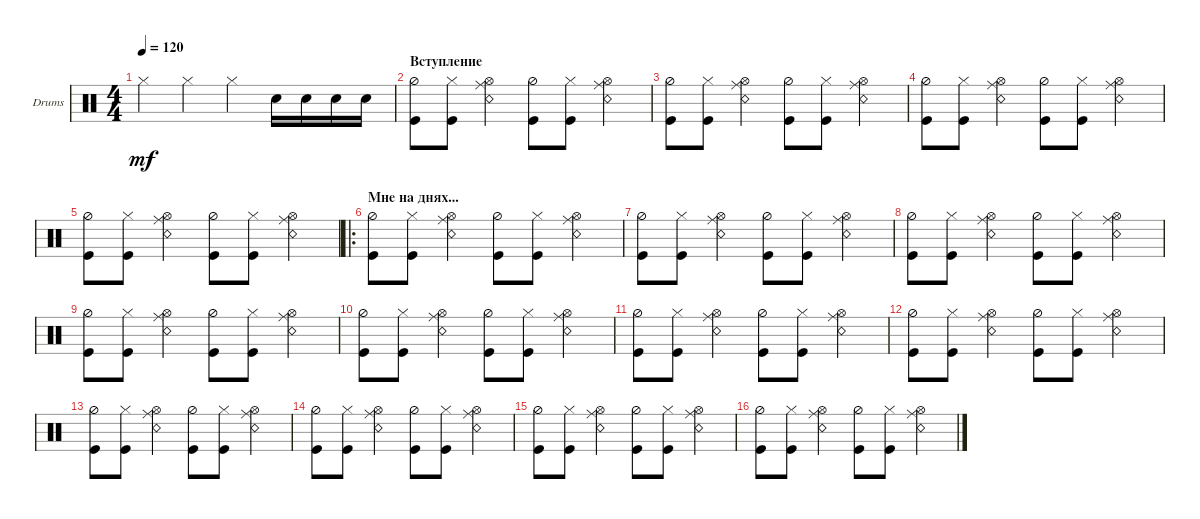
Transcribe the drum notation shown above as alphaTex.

\defaultSystemsLayout 4
\bracketExtendMode groupsimilarinstruments
\firstSystemTrackNameOrientation horizontal
\otherSystemsTrackNameOrientation horizontal
\track ("Drumkit" "Drums") {instrument percussion}
\staff {score}
\articulation defaults
\ts (4 4)
\tempo 120
\clef neutral
\ks c "Hi-Hat (closed)".4{dy mf} "Hi-Hat (closed)".4 "Hi-Hat (closed)".4 "Snare (hit) 2".16 "Snare (hit) 2".16 "Snare (hit) 2".16 "Snare (hit) 2".16
|
\section ("" "Вступление")
("Kick (hit)" "Hi-Hat (half)").8 ("Hi-Hat (closed)" "Kick (hit)").8 ("Hi-Hat (open)" "Ride (middle)" "Snare (rim shot)").4 ("Kick (hit)" "Hi-Hat (half)").8 ("Hi-Hat (closed)" "Kick (hit)").8 ("Hi-Hat (open)" "Ride (middle)" "Snare (rim shot)").4 |
("Kick (hit)" "Hi-Hat (half)").8 ("Hi-Hat (closed)" "Kick (hit)").8 ("Hi-Hat (open)" "Ride (middle)" "Snare (rim shot)").4 ("Kick (hit)" "Hi-Hat (half)").8 ("Hi-Hat (closed)" "Kick (hit)").8 ("Hi-Hat (open)" "Ride (middle)" "Snare (rim shot)").4 |
("Kick (hit)" "Hi-Hat (half)").8 ("Hi-Hat (closed)" "Kick (hit)").8 ("Hi-Hat (open)" "Ride (middle)" "Snare (rim shot)").4 ("Kick (hit)" "Hi-Hat (half)").8 ("Hi-Hat (closed)" "Kick (hit)").8 ("Hi-Hat (open)" "Ride (middle)" "Snare (rim shot)").4 |
("Kick (hit)" "Hi-Hat (half)").8 ("Hi-Hat (closed)" "Kick (hit)").8 ("Hi-Hat (open)" "Ride (middle)" "Snare (rim shot)").4 ("Kick (hit)" "Hi-Hat (half)").8 ("Hi-Hat (closed)" "Kick (hit)").8 ("Hi-Hat (open)" "Ride (middle)" "Snare (rim shot)").4 |
\ro
\section ("" "Мне на днях...")
("Kick (hit)" "Hi-Hat (half)").8 ("Hi-Hat (closed)" "Kick (hit)").8 ("Hi-Hat (open)" "Ride (middle)" "Snare (rim shot)").4 ("Kick (hit)" "Hi-Hat (half)").8 ("Hi-Hat (closed)" "Kick (hit)").8 ("Hi-Hat (open)" "Ride (middle)" "Snare (rim shot)").4 |
("Kick (hit)" "Hi-Hat (half)").8 ("Hi-Hat (closed)" "Kick (hit)").8 ("Hi-Hat (open)" "Ride (middle)" "Snare (rim shot)").4 ("Kick (hit)" "Hi-Hat (half)").8 ("Hi-Hat (closed)" "Kick (hit)").8 ("Hi-Hat (open)" "Ride (middle)" "Snare (rim shot)").4 |
("Kick (hit)" "Hi-Hat (half)").8 ("Hi-Hat (closed)" "Kick (hit)").8 ("Hi-Hat (open)" "Ride (middle)" "Snare (rim shot)").4 ("Kick (hit)" "Hi-Hat (half)").8 ("Hi-Hat (closed)" "Kick (hit)").8 ("Hi-Hat (open)" "Ride (middle)" "Snare (rim shot)").4 |
("Kick (hit)" "Hi-Hat (half)").8 ("Hi-Hat (closed)" "Kick (hit)").8 ("Hi-Hat (open)" "Ride (middle)" "Snare (rim shot)").4 ("Kick (hit)" "Hi-Hat (half)").8 ("Hi-Hat (closed)" "Kick (hit)").8 ("Hi-Hat (open)" "Ride (middle)" "Snare (rim shot)").4 |
("Kick (hit)" "Hi-Hat (half)").8 ("Hi-Hat (closed)" "Kick (hit)").8 ("Hi-Hat (open)" "Ride (middle)" "Snare (rim shot)").4 ("Kick (hit)" "Hi-Hat (half)").8 ("Hi-Hat (closed)" "Kick (hit)").8 ("Hi-Hat (open)" "Ride (middle)" "Snare (rim shot)").4 |
("Kick (hit)" "Hi-Hat (half)").8 ("Hi-Hat (closed)" "Kick (hit)").8 ("Hi-Hat (open)" "Ride (middle)" "Snare (rim shot)").4 ("Kick (hit)" "Hi-Hat (half)").8 ("Hi-Hat (closed)" "Kick (hit)").8 ("Hi-Hat (open)" "Ride (middle)" "Snare (rim shot)").4 |
("Kick (hit)" "Hi-Hat (half)").8 ("Hi-Hat (closed)" "Kick (hit)").8 ("Hi-Hat (open)" "Ride (middle)" "Snare (rim shot)").4 ("Kick (hit)" "Hi-Hat (half)").8 ("Hi-Hat (closed)" "Kick (hit)").8 ("Hi-Hat (open)" "Ride (middle)" "Snare (rim shot)").4 |
("Kick (hit)" "Hi-Hat (half)").8 ("Hi-Hat (closed)" "Kick (hit)").8 ("Hi-Hat (open)" "Ride (middle)" "Snare (rim shot)").4 ("Kick (hit)" "Hi-Hat (half)").8 ("Hi-Hat (closed)" "Kick (hit)").8 ("Hi-Hat (open)" "Ride (middle)" "Snare (rim shot)").4 |
("Kick (hit)" "Hi-Hat (half)").8 ("Hi-Hat (closed)" "Kick (hit)").8 ("Hi-Hat (open)" "Ride (middle)" "Snare (rim shot)").4 ("Kick (hit)" "Hi-Hat (half)").8 ("Hi-Hat (closed)" "Kick (hit)").8 ("Hi-Hat (open)" "Ride (middle)" "Snare (rim shot)").4 |
("Kick (hit)" "Hi-Hat (half)").8 ("Hi-Hat (closed)" "Kick (hit)").8 ("Hi-Hat (open)" "Ride (middle)" "Snare (rim shot)").4 ("Kick (hit)" "Hi-Hat (half)").8 ("Hi-Hat (closed)" "Kick (hit)").8 ("Hi-Hat (open)" "Ride (middle)" "Snare (rim shot)").4 |
("Kick (hit)" "Hi-Hat (half)").8 ("Hi-Hat (closed)" "Kick (hit)").8 ("Hi-Hat (open)" "Ride (middle)" "Snare (rim shot)").4 ("Kick (hit)" "Hi-Hat (half)").8 ("Hi-Hat (closed)" "Kick (hit)").8 ("Hi-Hat (open)" "Ride (middle)" "Snare (rim shot)").4
